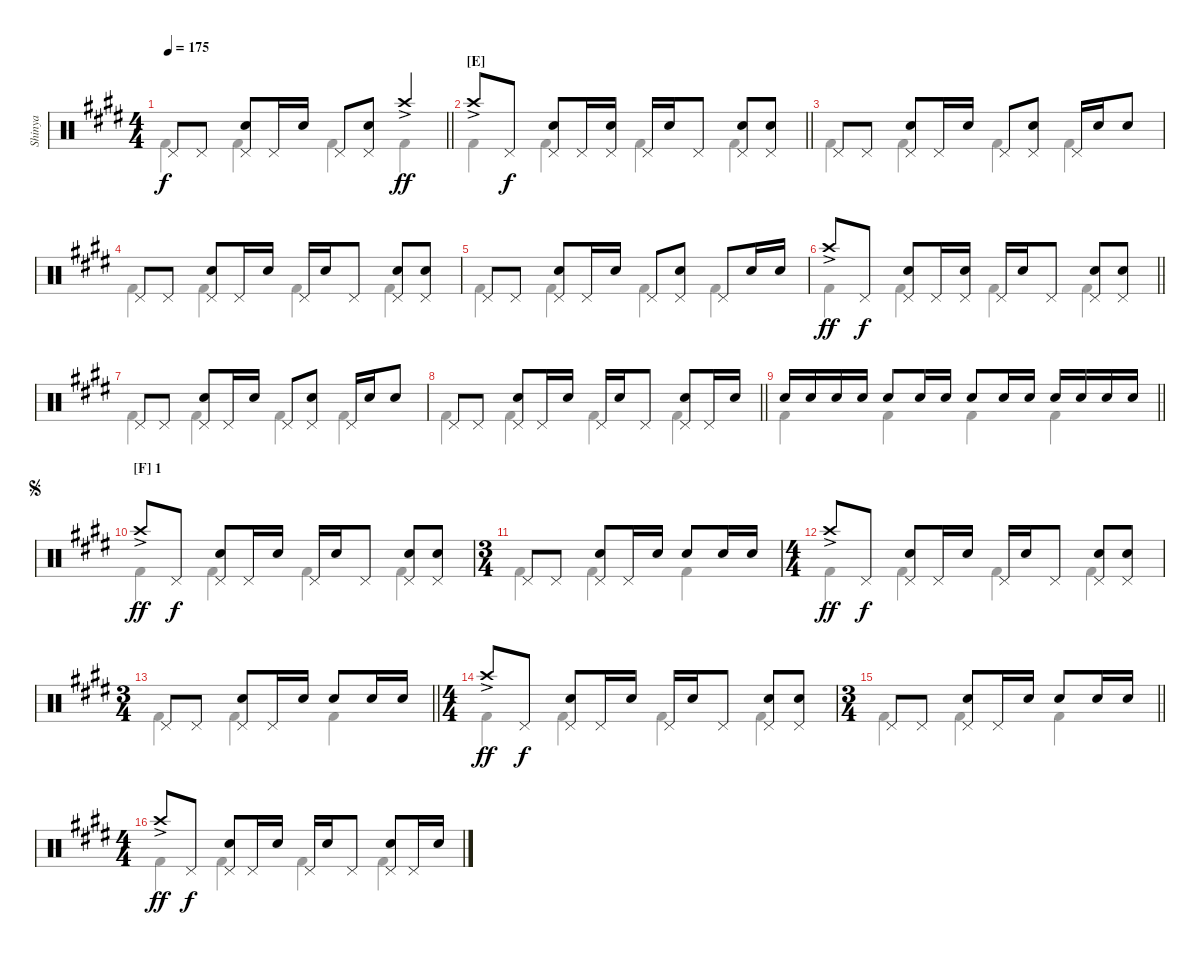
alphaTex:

\track ("Shinya" "Shinya") {instrument percussion}
\staff {score}
\articulation defaults
\voice
\ts (4 4)
\tempo 175
\clef neutral
\barLineRight lightlight
\ks c#minor "Pedal Hi-Hat (hit)".8{dy f} "Pedal Hi-Hat (hit)".8
("Pedal Hi-Hat (hit)" "Snare (hit) 2").8 "Pedal Hi-Hat (hit)".16 "Snare (hit) 2".16 "Pedal Hi-Hat (hit)".8 ("Pedal Hi-Hat (hit)" "Snare (hit) 2").8 "Crash high (hit)"{ac}.4{dy ff} |
\section ("" "[E]")
\barLineRight lightlight "Crash high (hit)"{ac}.8 "Pedal Hi-Hat (hit)".8{dy f}
("Pedal Hi-Hat (hit)" "Snare (hit) 2").8 "Pedal Hi-Hat (hit)".16 ("Pedal Hi-Hat (hit)" "Snare (hit) 2").16 "Pedal Hi-Hat (hit)".16 "Snare (hit) 2".16 "Pedal Hi-Hat (hit)".8 ("Pedal Hi-Hat (hit)" "Snare (hit) 2").8 ("Pedal Hi-Hat (hit)" "Snare (hit) 2").8 |
"Pedal Hi-Hat (hit)".8 "Pedal Hi-Hat (hit)".8 ("Pedal Hi-Hat (hit)" "Snare (hit) 2").8 "Pedal Hi-Hat (hit)".16 "Snare (hit) 2".16 "Pedal Hi-Hat (hit)".8 ("Pedal Hi-Hat (hit)" "Snare (hit) 2").8 "Pedal Hi-Hat (hit)".16 "Snare (hit) 2".16 "Snare (hit) 2".8 |
"Pedal Hi-Hat (hit)".8 "Pedal Hi-Hat (hit)".8 ("Pedal Hi-Hat (hit)" "Snare (hit) 2").8 "Pedal Hi-Hat (hit)".16 "Snare (hit) 2".16 "Pedal Hi-Hat (hit)".16 "Snare (hit) 2".16 "Pedal Hi-Hat (hit)".8 ("Pedal Hi-Hat (hit)" "Snare (hit) 2").8 ("Pedal Hi-Hat (hit)" "Snare (hit) 2").8 |
"Pedal Hi-Hat (hit)".8 "Pedal Hi-Hat (hit)".8 ("Pedal Hi-Hat (hit)" "Snare (hit) 2").8 "Pedal Hi-Hat (hit)".16 "Snare (hit) 2".16 "Pedal Hi-Hat (hit)".8 ("Pedal Hi-Hat (hit)" "Snare (hit) 2").8 "Pedal Hi-Hat (hit)".8 "Snare (hit) 2".16 "Snare (hit) 2".16 |
\barLineRight lightlight "Crash high (hit)"{ac}.8{dy ff} "Pedal Hi-Hat (hit)".8{dy f}
("Pedal Hi-Hat (hit)" "Snare (hit) 2").8 "Pedal Hi-Hat (hit)".16 ("Pedal Hi-Hat (hit)" "Snare (hit) 2").16 "Pedal Hi-Hat (hit)".16 "Snare (hit) 2".16 "Pedal Hi-Hat (hit)".8 ("Pedal Hi-Hat (hit)" "Snare (hit) 2").8 ("Pedal Hi-Hat (hit)" "Snare (hit) 2").8 |
"Pedal Hi-Hat (hit)".8 "Pedal Hi-Hat (hit)".8 ("Pedal Hi-Hat (hit)" "Snare (hit) 2").8 "Pedal Hi-Hat (hit)".16 "Snare (hit) 2".16 "Pedal Hi-Hat (hit)".8 ("Pedal Hi-Hat (hit)" "Snare (hit) 2").8 "Pedal Hi-Hat (hit)".16 "Snare (hit) 2".16 "Snare (hit) 2".8 |
\barLineRight lightlight "Pedal Hi-Hat (hit)".8 "Pedal Hi-Hat (hit)".8
("Pedal Hi-Hat (hit)" "Snare (hit) 2").8 "Pedal Hi-Hat (hit)".16 "Snare (hit) 2".16 "Pedal Hi-Hat (hit)".16 "Snare (hit) 2".16 "Pedal Hi-Hat (hit)".8 ("Pedal Hi-Hat (hit)" "Snare (hit) 2").8 "Pedal Hi-Hat (hit)".16 "Snare (hit) 2".16 |
\barLineRight lightlight "Snare (hit) 2".16 "Snare (hit) 2".16 "Snare (hit) 2".16 "Snare (hit) 2".16 "Snare (hit) 2".8 "Snare (hit) 2".16 "Snare (hit) 2".16 "Snare (hit) 2".8 "Snare (hit) 2".16 "Snare (hit) 2".16 "Snare (hit) 2".16 "Snare (hit) 2".16 "Snare (hit) 2".16 "Snare (hit) 2".16
|
\section ("" "[F] 1")
\jump segno "Crash high (hit)"{ac}.8{dy ff} "Pedal Hi-Hat (hit)".8{dy f}
("Pedal Hi-Hat (hit)" "Snare (hit) 2").8 "Pedal Hi-Hat (hit)".16 "Snare (hit) 2".16 "Pedal Hi-Hat (hit)".16 "Snare (hit) 2".16 "Pedal Hi-Hat (hit)".8 ("Pedal Hi-Hat (hit)" "Snare (hit) 2").8 ("Pedal Hi-Hat (hit)" "Snare (hit) 2").8 |
\ts (3 4)
"Pedal Hi-Hat (hit)".8 "Pedal Hi-Hat (hit)".8 ("Pedal Hi-Hat (hit)" "Snare (hit) 2").8 "Pedal Hi-Hat (hit)".16 "Snare (hit) 2".16 "Snare (hit) 2".8 "Snare (hit) 2".16 "Snare (hit) 2".16 |
\ts (4 4)
"Crash high (hit)"{ac}.8{dy ff} "Pedal Hi-Hat (hit)".8{dy f} ("Pedal Hi-Hat (hit)" "Snare (hit) 2").8 "Pedal Hi-Hat (hit)".16 "Snare (hit) 2".16 "Pedal Hi-Hat (hit)".16 "Snare (hit) 2".16 "Pedal Hi-Hat (hit)".8 ("Pedal Hi-Hat (hit)" "Snare (hit) 2").8 ("Pedal Hi-Hat (hit)" "Snare (hit) 2").8 |
\ts (3 4)
\barLineRight lightlight "Pedal Hi-Hat (hit)".8 "Pedal Hi-Hat (hit)".8
("Pedal Hi-Hat (hit)" "Snare (hit) 2").8 "Pedal Hi-Hat (hit)".16 "Snare (hit) 2".16 "Snare (hit) 2".8 "Snare (hit) 2".16 "Snare (hit) 2".16 |
\ts (4 4)
"Crash high (hit)"{ac}.8{dy ff} "Pedal Hi-Hat (hit)".8{dy f} ("Pedal Hi-Hat (hit)" "Snare (hit) 2").8 "Pedal Hi-Hat (hit)".16 "Snare (hit) 2".16 "Pedal Hi-Hat (hit)".16 "Snare (hit) 2".16 "Pedal Hi-Hat (hit)".8 ("Pedal Hi-Hat (hit)" "Snare (hit) 2").8 ("Pedal Hi-Hat (hit)" "Snare (hit) 2").8 |
\ts (3 4)
\barLineRight lightlight "Pedal Hi-Hat (hit)".8 "Pedal Hi-Hat (hit)".8
("Pedal Hi-Hat (hit)" "Snare (hit) 2").8 "Pedal Hi-Hat (hit)".16 "Snare (hit) 2".16 "Snare (hit) 2".8 "Snare (hit) 2".16 "Snare (hit) 2".16 |
\ts (4 4)
"Crash high (hit)"{ac}.8{dy ff} "Pedal Hi-Hat (hit)".8{dy f} ("Pedal Hi-Hat (hit)" "Snare (hit) 2").8 "Pedal Hi-Hat (hit)".16 "Snare (hit) 2".16 "Pedal Hi-Hat (hit)".16 "Snare (hit) 2".16 "Pedal Hi-Hat (hit)".8 ("Pedal Hi-Hat (hit)" "Snare (hit) 2").8 "Pedal Hi-Hat (hit)".16 "Snare (hit) 2".16
\voice
\clef neutral
\ottava regular
\simile none
\barLineRight lightlight
\ks c#minor "Kick (hit) 2".4{dy f} "Kick (hit) 2".4 "Kick (hit) 2".4 "Kick (hit) 2".4
|
\barLineRight lightlight "Kick (hit) 2".4 "Kick (hit) 2".4 "Kick (hit) 2".4 "Kick (hit) 2".4
|
"Kick (hit) 2".4 "Kick (hit) 2".4 "Kick (hit) 2".4 "Kick (hit) 2".4 |
"Kick (hit) 2".4 "Kick (hit) 2".4 "Kick (hit) 2".4 "Kick (hit) 2".4 |
"Kick (hit) 2".4 "Kick (hit) 2".4 "Kick (hit) 2".4 "Kick (hit) 2".4 |
\barLineRight lightlight "Kick (hit) 2".4 "Kick (hit) 2".4 "Kick (hit) 2".4 "Kick (hit) 2".4
|
"Kick (hit) 2".4 "Kick (hit) 2".4 "Kick (hit) 2".4 "Kick (hit) 2".4 |
\barLineRight lightlight "Kick (hit) 2".4 "Kick (hit) 2".4 "Kick (hit) 2".4 "Kick (hit) 2".4
|
\barLineRight lightlight "Kick (hit) 2".4 "Kick (hit) 2".4 "Kick (hit) 2".4 "Kick (hit) 2".4
|
"Kick (hit) 2".4 "Kick (hit) 2".4 "Kick (hit) 2".4 "Kick (hit) 2".4 |
"Kick (hit) 2".4 "Kick (hit) 2".4 "Kick (hit) 2".4 |
"Kick (hit) 2".4 "Kick (hit) 2".4 "Kick (hit) 2".4 "Kick (hit) 2".4 |
\barLineRight lightlight "Kick (hit) 2".4 "Kick (hit) 2".4 "Kick (hit) 2".4
|
"Kick (hit) 2".4 "Kick (hit) 2".4 "Kick (hit) 2".4 "Kick (hit) 2".4 |
\barLineRight lightlight "Kick (hit) 2".4 "Kick (hit) 2".4 "Kick (hit) 2".4
|
"Kick (hit) 2".4 "Kick (hit) 2".4 "Kick (hit) 2".4 "Kick (hit) 2".4
